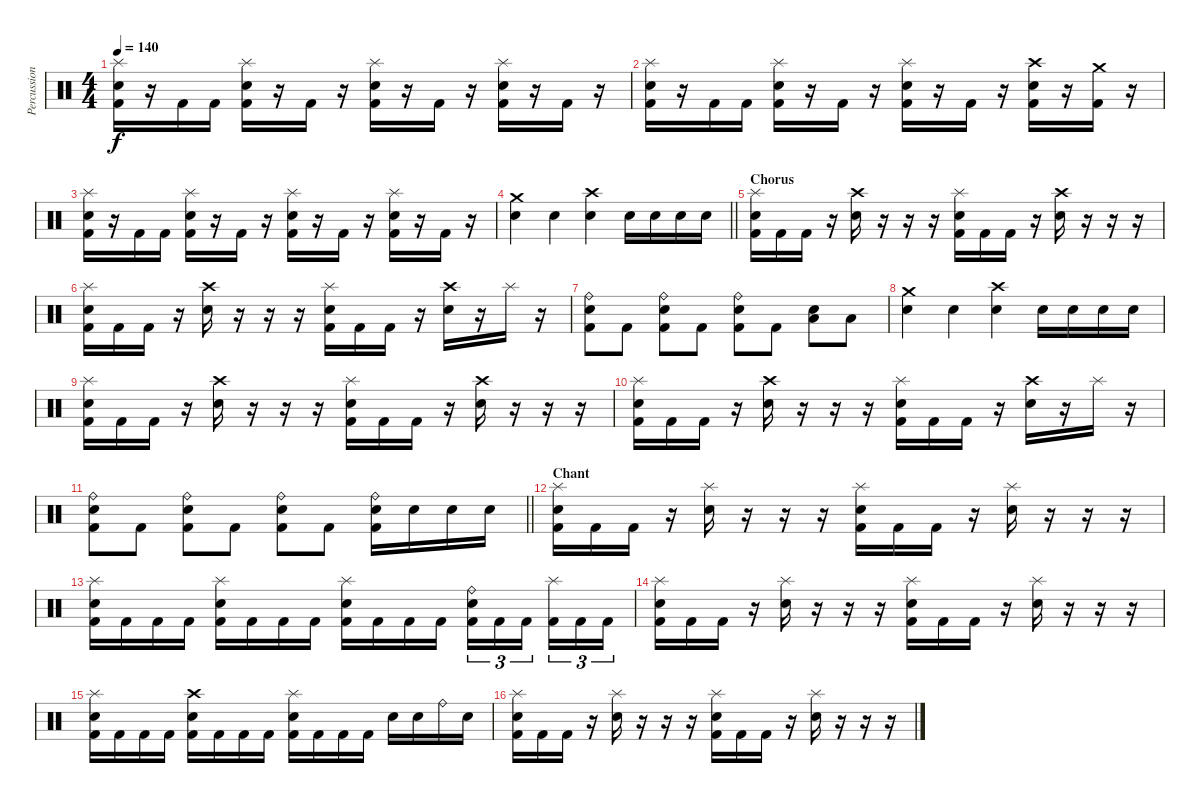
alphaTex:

\track ("Percussion" "Percussion") {instrument percussion}
\staff {score}
\articulation defaults
\ts (4 4)
\tempo 140
\clef neutral
\ks c
("Splash (hit)" "Snare (hit) 2" "Kick (hit) 2").16{dy f} r.16 "Kick (hit) 2".16 "Kick (hit) 2".16 ("Splash (hit)" "Snare (hit) 2" "Kick (hit) 2").16 r.16 "Kick (hit) 2".16 r.16 ("Splash (hit)" "Snare (hit) 2" "Kick (hit) 2").16 r.16 "Kick (hit) 2".16 r.16 ("Splash (hit)" "Snare (hit) 2" "Kick (hit) 2").16 r.16 "Kick (hit) 2".16 r.16 |
("Splash (hit)" "Snare (hit) 2" "Kick (hit) 2").16 r.16 "Kick (hit) 2".16 "Kick (hit) 2".16 ("Splash (hit)" "Snare (hit) 2" "Kick (hit) 2").16 r.16 "Kick (hit) 2".16 r.16 ("Splash (hit)" "Snare (hit) 2" "Kick (hit) 2").16 r.16 "Kick (hit) 2".16 r.16 ("Crash high (hit)" "Snare (hit) 2" "Kick (hit) 2").16 r.16 ("Crash medium (hit)" "Kick (hit) 2").16 r.16 |
("Splash (hit)" "Snare (hit) 2" "Kick (hit) 2").16 r.16 "Kick (hit) 2".16 "Kick (hit) 2".16 ("Splash (hit)" "Snare (hit) 2" "Kick (hit) 2").16 r.16 "Kick (hit) 2".16 r.16 ("Splash (hit)" "Snare (hit) 2" "Kick (hit) 2").16 r.16 "Kick (hit) 2".16 r.16 ("Splash (hit)" "Snare (hit) 2" "Kick (hit) 2").16 r.16 "Kick (hit) 2".16 r.16 |
\barLineRight lightlight
("Crash medium (hit)" "Snare (hit) 2").4 "Snare (hit) 2".4 ("Crash high (hit)" "Snare (hit) 2").4 "Snare (hit) 2".16 "Snare (hit) 2".16 "Snare (hit) 2".16 "Snare (hit) 2".16 |
\section ("" "Chorus")
("Splash (hit)" "Snare (hit) 2" "Kick (hit) 2").16 "Kick (hit) 2".16 "Kick (hit) 2".16 r.16 ("Crash high (hit)" "Snare (hit) 2").16 r.16 r.16 r.16 ("Splash (hit)" "Snare (hit) 2" "Kick (hit) 2").16 "Kick (hit) 2".16 "Kick (hit) 2".16 r.16 ("Crash high (hit)" "Snare (hit) 2").16 r.16 r.16 r.16 |
("Splash (hit)" "Snare (hit) 2" "Kick (hit) 2").16 "Kick (hit) 2".16 "Kick (hit) 2".16 r.16 ("Crash high (hit)" "Snare (hit) 2").16 r.16 r.16 r.16 ("Splash (hit)" "Snare (hit) 2" "Kick (hit) 2").16 "Kick (hit) 2".16 "Kick (hit) 2".16 r.16 ("Crash high (hit)" "Snare (hit) 2").16 r.16 "Splash (hit)".16 r.16 |
("Ride (bell)" "Snare (hit) 2" "Kick (hit) 2").8 "Kick (hit) 2".8 ("Ride (bell)" "Snare (hit) 2" "Kick (hit) 2").8 "Kick (hit) 2".8 ("Ride (bell)" "Snare (hit) 2" "Kick (hit) 2").8 "Kick (hit) 2".8 ("Low Tom (hit)" "Snare (hit) 2").8 "Low Floor Tom (hit)".8 |
("Crash medium (hit)" "Snare (hit) 2").4 "Snare (hit) 2".4 ("Crash high (hit)" "Snare (hit) 2").4 "Snare (hit) 2".16 "Snare (hit) 2".16 "Snare (hit) 2".16 "Snare (hit) 2".16 |
("Splash (hit)" "Snare (hit) 2" "Kick (hit) 2").16 "Kick (hit) 2".16 "Kick (hit) 2".16 r.16 ("Crash high (hit)" "Snare (hit) 2").16 r.16 r.16 r.16 ("Splash (hit)" "Snare (hit) 2" "Kick (hit) 2").16 "Kick (hit) 2".16 "Kick (hit) 2".16 r.16 ("Crash high (hit)" "Snare (hit) 2").16 r.16 r.16 r.16 |
("Splash (hit)" "Snare (hit) 2" "Kick (hit) 2").16 "Kick (hit) 2".16 "Kick (hit) 2".16 r.16 ("Crash high (hit)" "Snare (hit) 2").16 r.16 r.16 r.16 ("Splash (hit)" "Snare (hit) 2" "Kick (hit) 2").16 "Kick (hit) 2".16 "Kick (hit) 2".16 r.16 ("Crash high (hit)" "Snare (hit) 2").16 r.16 "Splash (hit)".16 r.16 |
\barLineRight lightlight
("Ride (bell)" "Snare (hit) 2" "Kick (hit) 2").8 "Kick (hit) 2".8 ("Ride (bell)" "Snare (hit) 2" "Kick (hit) 2").8 "Kick (hit) 2".8 ("Ride (bell)" "Snare (hit) 2" "Kick (hit) 2").8 "Kick (hit) 2".8 ("Ride (bell)" "Snare (hit) 2" "Kick (hit) 2").16 "Snare (hit) 2".16 "Snare (hit) 2".16 "Snare (hit) 2".16 |
\section ("" "Chant")
("Splash (hit)" "Snare (hit) 2" "Kick (hit) 2").16 "Kick (hit) 2".16 "Kick (hit) 2".16 r.16 ("Splash (hit)" "Snare (hit) 2").16 r.16 r.16 r.16 ("Splash (hit)" "Snare (hit) 2" "Kick (hit) 2").16 "Kick (hit) 2".16 "Kick (hit) 2".16 r.16 ("Splash (hit)" "Snare (hit) 2").16 r.16 r.16 r.16 |
("Splash (hit)" "Snare (hit) 2" "Kick (hit) 2").16 "Kick (hit) 2".16 "Kick (hit) 2".16 "Kick (hit) 2".16 ("Splash (hit)" "Snare (hit) 2" "Kick (hit) 2").16 "Kick (hit) 2".16 "Kick (hit) 2".16 "Kick (hit) 2".16 ("Splash (hit)" "Snare (hit) 2" "Kick (hit) 2").16 "Kick (hit) 2".16 "Kick (hit) 2".16 "Kick (hit) 2".16 ("Ride (bell)" "Snare (hit) 2" "Kick (hit) 2").16{tu (3 2)} "Kick (hit) 2".16{tu (3 2)} "Kick (hit) 2".16{tu (3 2) beam splitsecondary} ("Splash (hit)" "Kick (hit) 2").16{tu (3 2)} "Kick (hit) 2".16{tu (3 2)} "Kick (hit) 2".16{tu (3 2)} |
("Splash (hit)" "Snare (hit) 2" "Kick (hit) 2").16 "Kick (hit) 2".16 "Kick (hit) 2".16 r.16 ("Splash (hit)" "Snare (hit) 2").16 r.16 r.16 r.16 ("Splash (hit)" "Snare (hit) 2" "Kick (hit) 2").16 "Kick (hit) 2".16 "Kick (hit) 2".16 r.16 ("Splash (hit)" "Snare (hit) 2").16 r.16 r.16 r.16 |
("Splash (hit)" "Snare (hit) 2" "Kick (hit) 2").16 "Kick (hit) 2".16 "Kick (hit) 2".16 "Kick (hit) 2".16 ("Crash high (hit)" "Snare (hit) 2" "Kick (hit) 2").16 "Kick (hit) 2".16 "Kick (hit) 2".16 "Kick (hit) 2".16 ("Splash (hit)" "Snare (hit) 2" "Kick (hit) 2").16 "Kick (hit) 2".16 "Kick (hit) 2".16 "Kick (hit) 2".16 "Snare (hit) 2".16 "Snare (hit) 2".16 "Ride (bell)".16 "Snare (hit) 2".16 |
("Splash (hit)" "Snare (hit) 2" "Kick (hit) 2").16 "Kick (hit) 2".16 "Kick (hit) 2".16 r.16 ("Splash (hit)" "Snare (hit) 2").16 r.16 r.16 r.16 ("Splash (hit)" "Snare (hit) 2" "Kick (hit) 2").16 "Kick (hit) 2".16 "Kick (hit) 2".16 r.16 ("Splash (hit)" "Snare (hit) 2").16 r.16 r.16 r.16
